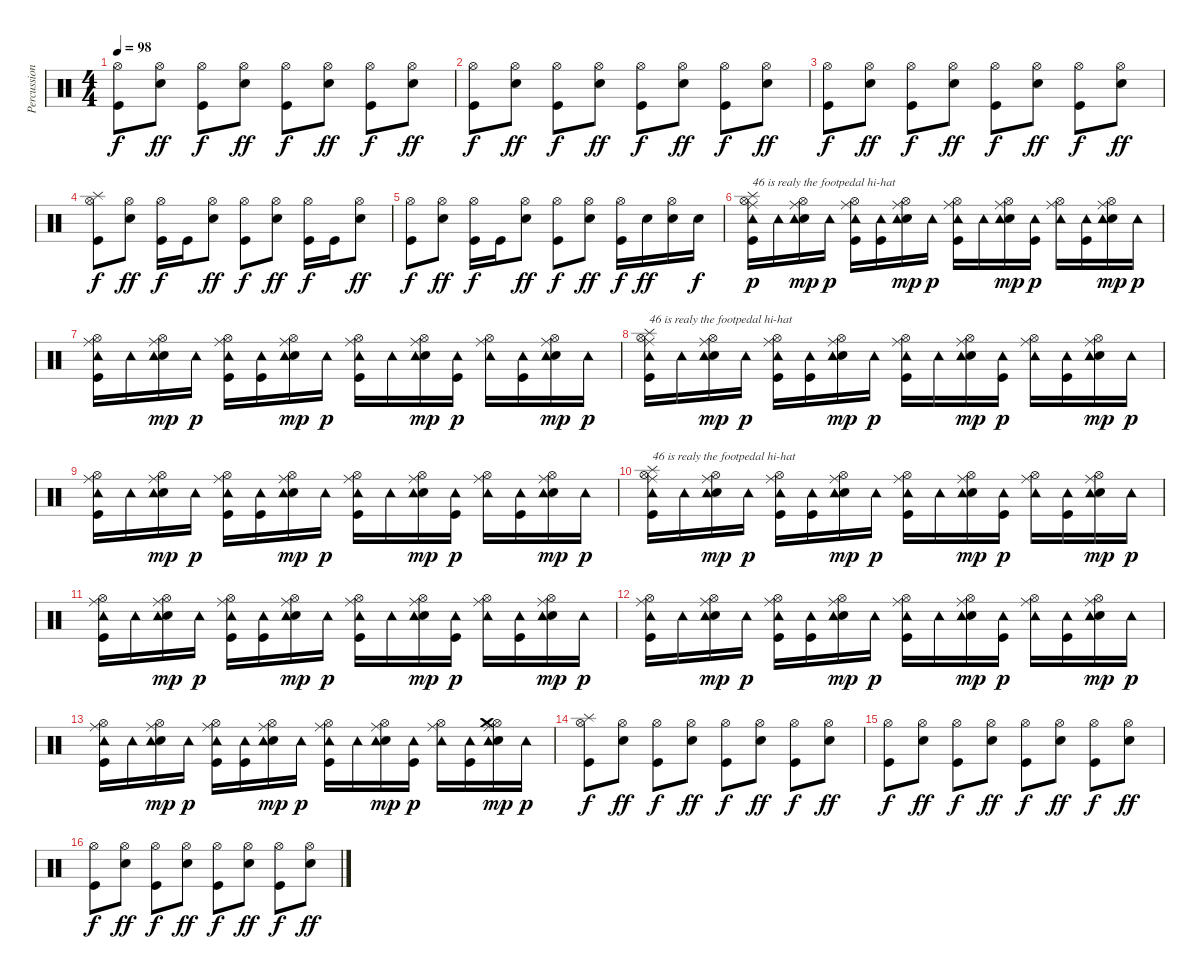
\track ("Percussion" "Percussion") {instrument percussion}
\staff {score}
\articulation defaults
\ts (4 4)
\tempo 98
\clef neutral
\ks c
("Hi-Hat (open)" "Kick (hit)").8{dy f} ("Hi-Hat (open)" "Snare (hit) 2").8{dy ff} ("Hi-Hat (open)" "Kick (hit)").8{dy f} ("Hi-Hat (open)" "Snare (hit) 2").8{dy ff} ("Hi-Hat (open)" "Kick (hit)").8{dy f} ("Hi-Hat (open)" "Snare (hit) 2").8{dy ff} ("Hi-Hat (open)" "Kick (hit)").8{dy f} ("Hi-Hat (open)" "Snare (hit) 2").8{dy ff} |
("Hi-Hat (open)" "Kick (hit)").8{dy f} ("Hi-Hat (open)" "Snare (hit) 2").8{dy ff} ("Hi-Hat (open)" "Kick (hit)").8{dy f} ("Hi-Hat (open)" "Snare (hit) 2").8{dy ff} ("Hi-Hat (open)" "Kick (hit)").8{dy f} ("Hi-Hat (open)" "Snare (hit) 2").8{dy ff} ("Hi-Hat (open)" "Kick (hit)").8{dy f} ("Hi-Hat (open)" "Snare (hit) 2").8{dy ff} |
("Hi-Hat (open)" "Kick (hit)").8{dy f} ("Hi-Hat (open)" "Snare (hit) 2").8{dy ff} ("Hi-Hat (open)" "Kick (hit)").8{dy f} ("Hi-Hat (open)" "Snare (hit) 2").8{dy ff} ("Hi-Hat (open)" "Kick (hit)").8{dy f} ("Hi-Hat (open)" "Snare (hit) 2").8{dy ff} ("Hi-Hat (open)" "Kick (hit)").8{dy f} ("Hi-Hat (open)" "Snare (hit) 2").8{dy ff} |
("Splash (hit)" "Hi-Hat (open)" "Kick (hit)").8{dy f} ("Hi-Hat (open)" "Snare (hit) 2").8{dy ff} ("Hi-Hat (open)" "Kick (hit)").16{dy f} "Kick (hit)".16 ("Hi-Hat (open)" "Snare (hit) 2").8{dy ff} ("Hi-Hat (open)" "Kick (hit)").8{dy f} ("Hi-Hat (open)" "Snare (hit) 2").8{dy ff} ("Hi-Hat (open)" "Kick (hit)").16{dy f} "Kick (hit)".16 ("Hi-Hat (open)" "Snare (hit) 2").8{dy ff} |
("Hi-Hat (open)" "Kick (hit)").8{dy f} ("Hi-Hat (open)" "Snare (hit) 2").8{dy ff} ("Hi-Hat (open)" "Kick (hit)").16{dy f} "Kick (hit)".16 ("Hi-Hat (open)" "Snare (hit) 2").8{dy ff} ("Hi-Hat (open)" "Kick (hit)").8{dy f} ("Hi-Hat (open)" "Snare (hit) 2").8{dy ff} ("Hi-Hat (open)" "Kick (hit)").16{dy f} "Snare (hit) 2".16{dy ff} ("Hi-Hat (open)" "Snare (hit) 2").16 "Snare (hit) 2".16{dy f} |
("Ride (middle)" "Hi-Hat (open)" "Kick (hit)" "Tambourine (hit)" "Splash (hit)").16{txt "46 is realy the footpedal hi-hat" dy p} "Tambourine (hit)".16 ("Ride (middle)" "Hi-Hat (open)" "Snare (hit) 2" "Tambourine (hit)").16{dy mp} "Tambourine (hit)".16{dy p} ("Ride (middle)" "Hi-Hat (open)" "Kick (hit)" "Tambourine (hit)").16 ("Kick (hit)" "Tambourine (hit)").16 ("Ride (middle)" "Hi-Hat (open)" "Snare (hit) 2" "Tambourine (hit)").16{dy mp} "Tambourine (hit)".16{dy p} ("Ride (middle)" "Hi-Hat (open)" "Kick (hit)" "Tambourine (hit)").16 "Tambourine (hit)".16 ("Ride (middle)" "Hi-Hat (open)" "Snare (hit) 2" "Tambourine (hit)").16{dy mp} ("Kick (hit)" "Tambourine (hit)").16{dy p} ("Ride (middle)" "Hi-Hat (open)" "Tambourine (hit)").16 ("Kick (hit)" "Tambourine (hit)").16 ("Ride (middle)" "Hi-Hat (open)" "Snare (hit) 2" "Tambourine (hit)").16{dy mp} "Tambourine (hit)".16{dy p} |
("Ride (middle)" "Hi-Hat (open)" "Kick (hit)" "Tambourine (hit)").16 "Tambourine (hit)".16 ("Ride (middle)" "Hi-Hat (open)" "Snare (hit) 2" "Tambourine (hit)").16{dy mp} "Tambourine (hit)".16{dy p} ("Ride (middle)" "Hi-Hat (open)" "Kick (hit)" "Tambourine (hit)").16 ("Kick (hit)" "Tambourine (hit)").16 ("Ride (middle)" "Hi-Hat (open)" "Snare (hit) 2" "Tambourine (hit)").16{dy mp} "Tambourine (hit)".16{dy p} ("Ride (middle)" "Hi-Hat (open)" "Kick (hit)" "Tambourine (hit)").16 "Tambourine (hit)".16 ("Ride (middle)" "Hi-Hat (open)" "Snare (hit) 2" "Tambourine (hit)").16{dy mp} ("Kick (hit)" "Tambourine (hit)").16{dy p} ("Ride (middle)" "Hi-Hat (open)" "Tambourine (hit)").16 ("Kick (hit)" "Tambourine (hit)").16 ("Ride (middle)" "Hi-Hat (open)" "Snare (hit) 2" "Tambourine (hit)").16{dy mp} "Tambourine (hit)".16{dy p} |
("Ride (middle)" "Hi-Hat (open)" "Kick (hit)" "Tambourine (hit)" "Splash (hit)").16{txt "46 is realy the footpedal hi-hat"} "Tambourine (hit)".16 ("Ride (middle)" "Hi-Hat (open)" "Snare (hit) 2" "Tambourine (hit)").16{dy mp} "Tambourine (hit)".16{dy p} ("Ride (middle)" "Hi-Hat (open)" "Kick (hit)" "Tambourine (hit)").16 ("Kick (hit)" "Tambourine (hit)").16 ("Ride (middle)" "Hi-Hat (open)" "Snare (hit) 2" "Tambourine (hit)").16{dy mp} "Tambourine (hit)".16{dy p} ("Ride (middle)" "Hi-Hat (open)" "Kick (hit)" "Tambourine (hit)").16 "Tambourine (hit)".16 ("Ride (middle)" "Hi-Hat (open)" "Snare (hit) 2" "Tambourine (hit)").16{dy mp} ("Kick (hit)" "Tambourine (hit)").16{dy p} ("Ride (middle)" "Hi-Hat (open)" "Tambourine (hit)").16 ("Kick (hit)" "Tambourine (hit)").16 ("Ride (middle)" "Hi-Hat (open)" "Snare (hit) 2" "Tambourine (hit)").16{dy mp} "Tambourine (hit)".16{dy p} |
("Ride (middle)" "Hi-Hat (open)" "Kick (hit)" "Tambourine (hit)").16 "Tambourine (hit)".16 ("Ride (middle)" "Hi-Hat (open)" "Snare (hit) 2" "Tambourine (hit)").16{dy mp} "Tambourine (hit)".16{dy p} ("Ride (middle)" "Hi-Hat (open)" "Kick (hit)" "Tambourine (hit)").16 ("Kick (hit)" "Tambourine (hit)").16 ("Ride (middle)" "Hi-Hat (open)" "Snare (hit) 2" "Tambourine (hit)").16{dy mp} "Tambourine (hit)".16{dy p} ("Ride (middle)" "Hi-Hat (open)" "Kick (hit)" "Tambourine (hit)").16 "Tambourine (hit)".16 ("Ride (middle)" "Hi-Hat (open)" "Snare (hit) 2" "Tambourine (hit)").16{dy mp} ("Kick (hit)" "Tambourine (hit)").16{dy p} ("Ride (middle)" "Hi-Hat (open)" "Tambourine (hit)").16 ("Kick (hit)" "Tambourine (hit)").16 ("Ride (middle)" "Hi-Hat (open)" "Snare (hit) 2" "Tambourine (hit)").16{dy mp} "Tambourine (hit)".16{dy p} |
("Ride (middle)" "Hi-Hat (open)" "Kick (hit)" "Tambourine (hit)" "Splash (hit)").16{txt "46 is realy the footpedal hi-hat"} "Tambourine (hit)".16 ("Ride (middle)" "Hi-Hat (open)" "Snare (hit) 2" "Tambourine (hit)").16{dy mp} "Tambourine (hit)".16{dy p} ("Ride (middle)" "Hi-Hat (open)" "Kick (hit)" "Tambourine (hit)").16 ("Kick (hit)" "Tambourine (hit)").16 ("Ride (middle)" "Hi-Hat (open)" "Snare (hit) 2" "Tambourine (hit)").16{dy mp} "Tambourine (hit)".16{dy p} ("Ride (middle)" "Hi-Hat (open)" "Kick (hit)" "Tambourine (hit)").16 "Tambourine (hit)".16 ("Ride (middle)" "Hi-Hat (open)" "Snare (hit) 2" "Tambourine (hit)").16{dy mp} ("Kick (hit)" "Tambourine (hit)").16{dy p} ("Ride (middle)" "Hi-Hat (open)" "Tambourine (hit)").16 ("Kick (hit)" "Tambourine (hit)").16 ("Ride (middle)" "Hi-Hat (open)" "Snare (hit) 2" "Tambourine (hit)").16{dy mp} "Tambourine (hit)".16{dy p} |
("Ride (middle)" "Hi-Hat (open)" "Kick (hit)" "Tambourine (hit)").16 "Tambourine (hit)".16 ("Ride (middle)" "Hi-Hat (open)" "Snare (hit) 2" "Tambourine (hit)").16{dy mp} "Tambourine (hit)".16{dy p} ("Ride (middle)" "Hi-Hat (open)" "Kick (hit)" "Tambourine (hit)").16 ("Kick (hit)" "Tambourine (hit)").16 ("Ride (middle)" "Hi-Hat (open)" "Snare (hit) 2" "Tambourine (hit)").16{dy mp} "Tambourine (hit)".16{dy p} ("Ride (middle)" "Hi-Hat (open)" "Kick (hit)" "Tambourine (hit)").16 "Tambourine (hit)".16 ("Ride (middle)" "Hi-Hat (open)" "Snare (hit) 2" "Tambourine (hit)").16{dy mp} ("Kick (hit)" "Tambourine (hit)").16{dy p} ("Ride (middle)" "Hi-Hat (open)" "Tambourine (hit)").16 ("Kick (hit)" "Tambourine (hit)").16 ("Ride (middle)" "Hi-Hat (open)" "Snare (hit) 2" "Tambourine (hit)").16{dy mp} "Tambourine (hit)".16{dy p} |
("Ride (middle)" "Hi-Hat (open)" "Kick (hit)" "Tambourine (hit)").16 "Tambourine (hit)".16 ("Ride (middle)" "Hi-Hat (open)" "Snare (hit) 2" "Tambourine (hit)").16{dy mp} "Tambourine (hit)".16{dy p} ("Ride (middle)" "Hi-Hat (open)" "Kick (hit)" "Tambourine (hit)").16 ("Kick (hit)" "Tambourine (hit)").16 ("Ride (middle)" "Hi-Hat (open)" "Snare (hit) 2" "Tambourine (hit)").16{dy mp} "Tambourine (hit)".16{dy p} ("Ride (middle)" "Hi-Hat (open)" "Kick (hit)" "Tambourine (hit)").16 "Tambourine (hit)".16 ("Ride (middle)" "Hi-Hat (open)" "Snare (hit) 2" "Tambourine (hit)").16{dy mp} ("Kick (hit)" "Tambourine (hit)").16{dy p} ("Ride (middle)" "Hi-Hat (open)" "Tambourine (hit)").16 ("Kick (hit)" "Tambourine (hit)").16 ("Ride (middle)" "Hi-Hat (open)" "Snare (hit) 2" "Tambourine (hit)").16{dy mp} "Tambourine (hit)".16{dy p} |
("Ride (middle)" "Hi-Hat (open)" "Kick (hit)" "Tambourine (hit)").16 "Tambourine (hit)".16 ("Ride (middle)" "Hi-Hat (open)" "Snare (hit) 2" "Tambourine (hit)").16{dy mp} "Tambourine (hit)".16{dy p} ("Ride (middle)" "Hi-Hat (open)" "Kick (hit)" "Tambourine (hit)").16 ("Kick (hit)" "Tambourine (hit)").16 ("Ride (middle)" "Hi-Hat (open)" "Snare (hit) 2" "Tambourine (hit)").16{dy mp} "Tambourine (hit)".16{dy p} ("Ride (middle)" "Hi-Hat (open)" "Kick (hit)" "Tambourine (hit)").16 "Tambourine (hit)".16 ("Ride (middle)" "Hi-Hat (open)" "Snare (hit) 2" "Tambourine (hit)").16{dy mp} ("Kick (hit)" "Tambourine (hit)").16{dy p} ("Ride (middle)" "Hi-Hat (open)" "Tambourine (hit)").16 ("Kick (hit)" "Tambourine (hit)").16 ("Ride (middle)" "Hi-Hat (open)" "Snare (hit) 2" "Tambourine (hit)" "Crash medium (hit)").16{dy mp} "Tambourine (hit)".16{dy p} |
("Splash (hit)" "Hi-Hat (open)" "Kick (hit)").8{dy f} ("Hi-Hat (open)" "Snare (hit) 2").8{dy ff} ("Hi-Hat (open)" "Kick (hit)").8{dy f} ("Hi-Hat (open)" "Snare (hit) 2").8{dy ff} ("Hi-Hat (open)" "Kick (hit)").8{dy f} ("Hi-Hat (open)" "Snare (hit) 2").8{dy ff} ("Hi-Hat (open)" "Kick (hit)").8{dy f} ("Hi-Hat (open)" "Snare (hit) 2").8{dy ff} |
("Hi-Hat (open)" "Kick (hit)").8{dy f} ("Hi-Hat (open)" "Snare (hit) 2").8{dy ff} ("Hi-Hat (open)" "Kick (hit)").8{dy f} ("Hi-Hat (open)" "Snare (hit) 2").8{dy ff} ("Hi-Hat (open)" "Kick (hit)").8{dy f} ("Hi-Hat (open)" "Snare (hit) 2").8{dy ff} ("Hi-Hat (open)" "Kick (hit)").8{dy f} ("Hi-Hat (open)" "Snare (hit) 2").8{dy ff} |
("Hi-Hat (open)" "Kick (hit)").8{dy f} ("Hi-Hat (open)" "Snare (hit) 2").8{dy ff} ("Hi-Hat (open)" "Kick (hit)").8{dy f} ("Hi-Hat (open)" "Snare (hit) 2").8{dy ff} ("Hi-Hat (open)" "Kick (hit)").8{dy f} ("Hi-Hat (open)" "Snare (hit) 2").8{dy ff} ("Hi-Hat (open)" "Kick (hit)").8{dy f} ("Hi-Hat (open)" "Snare (hit) 2").8{dy ff}
